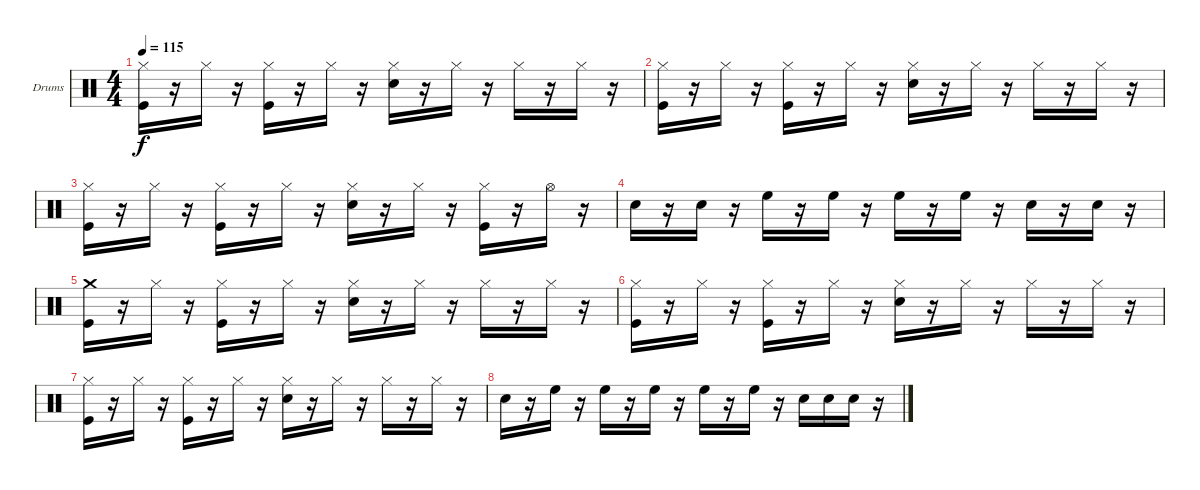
\bracketExtendMode groupsimilarinstruments
\firstSystemTrackNameOrientation horizontal
\otherSystemsTrackNameOrientation horizontal
\track ("Drumkit" "Drums") {instrument percussion}
\staff {score}
\articulation defaults
\ts (4 4)
\tempo 115
\clef neutral
\ks c
("Hi-Hat (closed)" "Kick (hit)").16{dy f} r.16 "Hi-Hat (closed)".16 r.16 ("Hi-Hat (closed)" "Kick (hit)").16 r.16 "Hi-Hat (closed)".16 r.16 ("Hi-Hat (closed)" "Snare (hit) 2").16 r.16 "Hi-Hat (closed)".16 r.16 "Hi-Hat (closed)".16 r.16 "Hi-Hat (closed)".16 r.16 |
("Hi-Hat (closed)" "Kick (hit)").16 r.16 "Hi-Hat (closed)".16 r.16 ("Hi-Hat (closed)" "Kick (hit)").16 r.16 "Hi-Hat (closed)".16 r.16 ("Hi-Hat (closed)" "Snare (hit) 2").16 r.16 "Hi-Hat (closed)".16 r.16 "Hi-Hat (closed)".16 r.16 "Hi-Hat (closed)".16 r.16 |
("Hi-Hat (closed)" "Kick (hit)").16 r.16 "Hi-Hat (closed)".16 r.16 ("Hi-Hat (closed)" "Kick (hit)").16 r.16 "Hi-Hat (closed)".16 r.16 ("Hi-Hat (closed)" "Snare (hit) 2").16 r.16 "Hi-Hat (closed)".16 r.16 ("Hi-Hat (closed)" "Kick (hit)").16 r.16 "Hi-Hat (open)".16 r.16 |
"Snare (hit) 2".16 r.16 "Snare (hit) 2".16 r.16 "High Floor Tom (hit)".16 r.16 "High Floor Tom (hit)".16 r.16 "High Floor Tom (hit)".16 r.16 "High Floor Tom (hit)".16 r.16 "Snare (hit) 2".16 r.16 "Snare (hit) 2".16 r.16 |
("Crash medium (hit)" "Kick (hit)").16 r.16 "Hi-Hat (closed)".16 r.16 ("Hi-Hat (closed)" "Kick (hit)").16 r.16 "Hi-Hat (closed)".16 r.16 ("Hi-Hat (closed)" "Snare (hit) 2").16 r.16 "Hi-Hat (closed)".16 r.16 "Hi-Hat (closed)".16 r.16 "Hi-Hat (closed)".16 r.16 |
("Hi-Hat (closed)" "Kick (hit)").16 r.16 "Hi-Hat (closed)".16 r.16 ("Hi-Hat (closed)" "Kick (hit)").16 r.16 "Hi-Hat (closed)".16 r.16 ("Hi-Hat (closed)" "Snare (hit) 2").16 r.16 "Hi-Hat (closed)".16 r.16 "Hi-Hat (closed)".16 r.16 "Hi-Hat (closed)".16 r.16 |
("Hi-Hat (closed)" "Kick (hit)").16 r.16 "Hi-Hat (closed)".16 r.16 ("Hi-Hat (closed)" "Kick (hit)").16 r.16 "Hi-Hat (closed)".16 r.16 ("Hi-Hat (closed)" "Snare (hit) 2").16 r.16 "Hi-Hat (closed)".16 r.16 "Hi-Hat (closed)".16 r.16 "Hi-Hat (closed)".16 r.16 |
"Snare (hit) 2".16 r.16 "High Floor Tom (hit)".16 r.16 "High Floor Tom (hit)".16 r.16 "High Floor Tom (hit)".16 r.16 "High Floor Tom (hit)".16 r.16 "High Floor Tom (hit)".16 r.16 "Snare (hit) 2".16 "Snare (hit) 2".16 "Snare (hit) 2".16 r.16
